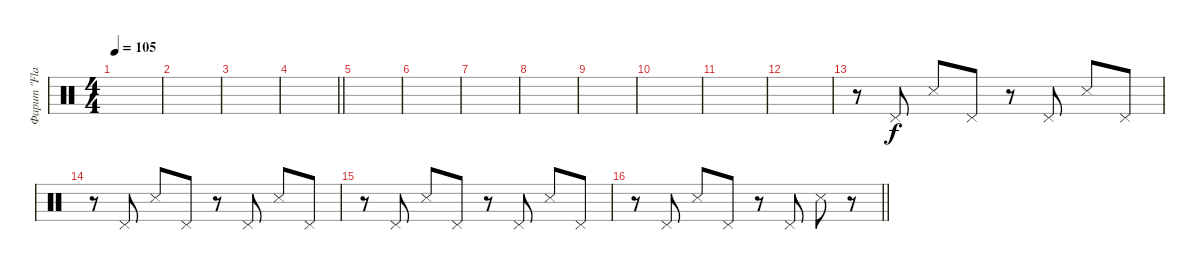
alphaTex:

\track ("Фарит \"Flag\" Шакиров" "Фарит \"Fla") {instrument percussion}
\staff {score}
\articulation defaults
\ts (4 4)
\tempo 105
\clef neutral
\ks c
|
|
|
\barLineRight lightlight
|
\section ("" "")
|
|
|
|
|
|
|
|
r.8 "Pedal Hi-Hat (hit)".8 "Snare (side stick) 3".8 "Pedal Hi-Hat (hit)".8 r.8 "Pedal Hi-Hat (hit)".8 "Snare (side stick) 3".8 "Pedal Hi-Hat (hit)".8 |
r.8 "Pedal Hi-Hat (hit)".8 "Snare (side stick) 3".8 "Pedal Hi-Hat (hit)".8 r.8 "Pedal Hi-Hat (hit)".8 "Snare (side stick) 3".8 "Pedal Hi-Hat (hit)".8 |
r.8 "Pedal Hi-Hat (hit)".8 "Snare (side stick) 3".8 "Pedal Hi-Hat (hit)".8 r.8 "Pedal Hi-Hat (hit)".8 "Snare (side stick) 3".8 "Pedal Hi-Hat (hit)".8 |
\barLineRight lightlight
r.8 "Pedal Hi-Hat (hit)".8 "Snare (side stick) 3".8 "Pedal Hi-Hat (hit)".8 r.8 "Pedal Hi-Hat (hit)".8 "Snare (side stick) 3".8 r.8
